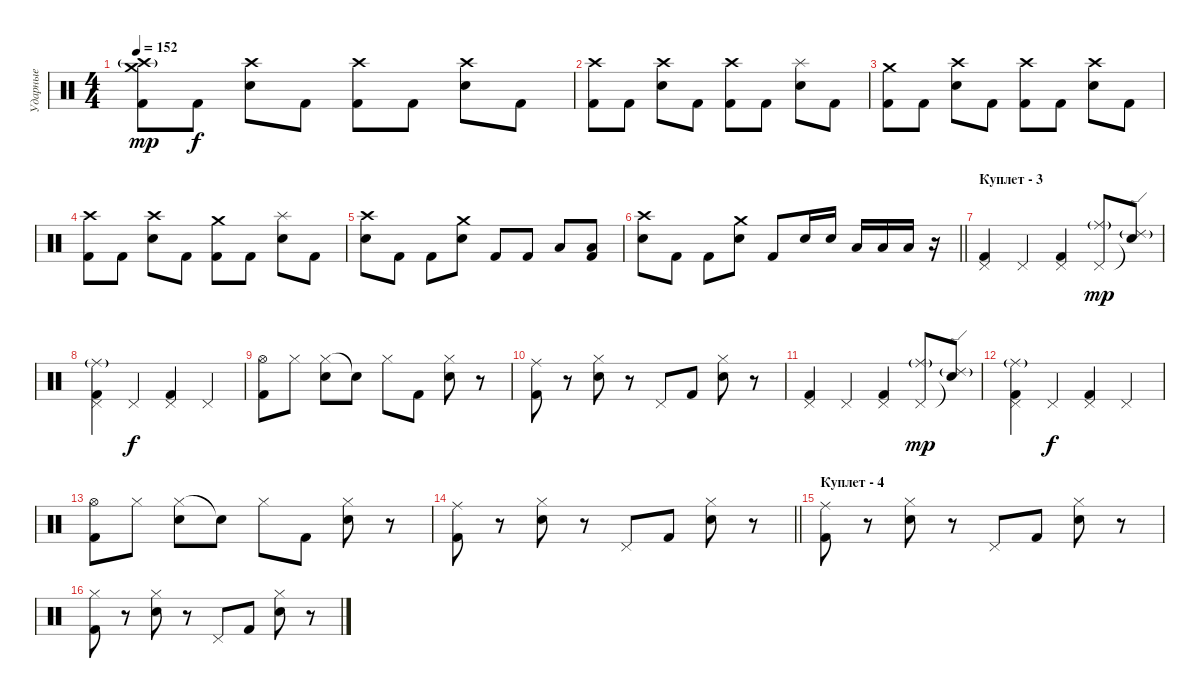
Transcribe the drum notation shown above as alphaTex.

\track ("Ударные" "Ударные") {instrument percussion}
\staff {score}
\articulation defaults
\ts (4 4)
\tempo 152
\clef neutral
\ks c
("Crash medium (hit)" "Crash high (hit)"{g} "Kick (hit) 2").8{dy mp} "Kick (hit) 2".8{dy f} ("Crash high (hit)" "Snare (hit) 2").8 "Kick (hit) 2".8 ("Crash high (hit)" "Kick (hit) 2").8 "Kick (hit) 2".8 ("Crash high (hit)" "Snare (hit) 2").8 "Kick (hit) 2".8 |
("Crash high (hit)" "Kick (hit) 2").8 "Kick (hit) 2".8 ("Crash high (hit)" "Snare (hit) 2").8 "Kick (hit) 2".8 ("Crash high (hit)" "Kick (hit) 2").8 "Kick (hit) 2".8 ("Splash (hit)" "Snare (hit) 2").8 "Kick (hit) 2".8 |
("Crash medium (hit)" "Kick (hit) 2").8 "Kick (hit) 2".8 ("Crash high (hit)" "Snare (hit) 2").8 "Kick (hit) 2".8 ("Crash high (hit)" "Kick (hit) 2").8 "Kick (hit) 2".8 ("Crash high (hit)" "Snare (hit) 2").8 "Kick (hit) 2".8 |
("Crash high (hit)" "Kick (hit) 2").8 "Kick (hit) 2".8 ("Crash high (hit)" "Snare (hit) 2").8 "Kick (hit) 2".8 ("Crash medium (hit)" "Kick (hit) 2").8 "Kick (hit) 2".8 ("Splash (hit)" "Snare (hit) 2").8 "Kick (hit) 2".8 |
("Crash high (hit)" "Snare (hit) 2").8 "Kick (hit) 2".8 "Kick (hit) 2".8 ("Crash medium (hit)" "Snare (hit) 2").8 "Kick (hit) 2".8 "Kick (hit) 2".8 "Low Floor Tom (hit)".8 ("Low Tom (hit)" "Kick (hit) 2").8 |
\barLineRight lightlight
("Crash high (hit)" "Snare (hit) 2").8 "Kick (hit) 2".8 "Kick (hit) 2".8 ("Crash medium (hit)" "Snare (hit) 2").8 "Kick (hit) 2".8 "Snare (hit) 2".16 "Snare (hit) 2".16 "Low Tom (hit)".16 "Low Tom (hit)".16 "Low Floor Tom (hit)".16 r.16 |
\section ("" "Куплет - 3")
("Pedal Hi-Hat (hit)" "Kick (hit) 2").4 "Pedal Hi-Hat (hit)".4 ("Pedal Hi-Hat (hit)" "Kick (hit) 2").4 ("Pedal Hi-Hat (hit)" "Ride (middle)"{g}).8{dy mp} ("Snare (hit)"{t} "Ride (edge) 2"{g}).8 |
("Pedal Hi-Hat (hit)" "Kick (hit) 2" "Ride (middle)"{g}).4 "Pedal Hi-Hat (hit)".4{dy f} ("Pedal Hi-Hat (hit)" "Kick (hit) 2").4 "Pedal Hi-Hat (hit)".4 |
("Hi-Hat (open)" "Kick (hit) 2").8 "Hi-Hat (closed)".8 ("Hi-Hat (closed)" "Snare (hit) 2").8 "Snare (hit)"{t}.8 "Hi-Hat (closed)".8 "Kick (hit) 2".8 ("Hi-Hat (closed)" "Snare (hit) 2").8 r.8 |
("Ride (middle)" "Kick (hit) 2").8 r.8 ("Hi-Hat (closed)" "Snare (hit) 2").8 r.8 "Pedal Hi-Hat (hit)".8 "Kick (hit) 2".8 ("Hi-Hat (closed)" "Snare (hit) 2").8 r.8 |
("Pedal Hi-Hat (hit)" "Kick (hit) 2").4 "Pedal Hi-Hat (hit)".4 ("Pedal Hi-Hat (hit)" "Kick (hit) 2").4 ("Pedal Hi-Hat (hit)" "Ride (middle)"{g}).8{dy mp} ("Snare (hit)"{t} "Ride (edge) 2"{g}).8 |
("Pedal Hi-Hat (hit)" "Kick (hit) 2" "Ride (middle)"{g}).4 "Pedal Hi-Hat (hit)".4{dy f} ("Pedal Hi-Hat (hit)" "Kick (hit) 2").4 "Pedal Hi-Hat (hit)".4 |
("Hi-Hat (open)" "Kick (hit) 2").8 "Hi-Hat (closed)".8 ("Hi-Hat (closed)" "Snare (hit) 2").8 "Snare (hit)"{t}.8 "Hi-Hat (closed)".8 "Kick (hit) 2".8 ("Hi-Hat (closed)" "Snare (hit) 2").8 r.8 |
\barLineRight lightlight
("Ride (middle)" "Kick (hit) 2").8 r.8 ("Hi-Hat (closed)" "Snare (hit) 2").8 r.8 "Pedal Hi-Hat (hit)".8 "Kick (hit) 2".8 ("Hi-Hat (closed)" "Snare (hit) 2").8 r.8 |
\section ("" "Куплет - 4")
("Ride (middle)" "Kick (hit) 2").8 r.8 ("Hi-Hat (closed)" "Snare (hit) 2").8 r.8 "Pedal Hi-Hat (hit)".8 "Kick (hit) 2".8 ("Hi-Hat (closed)" "Snare (hit) 2").8 r.8 |
("Hi-Hat (closed)" "Kick (hit) 2").8 r.8 ("Hi-Hat (closed)" "Snare (hit) 2").8 r.8 "Pedal Hi-Hat (hit)".8 "Kick (hit) 2".8 ("Hi-Hat (closed)" "Snare (hit) 2").8 r.8
